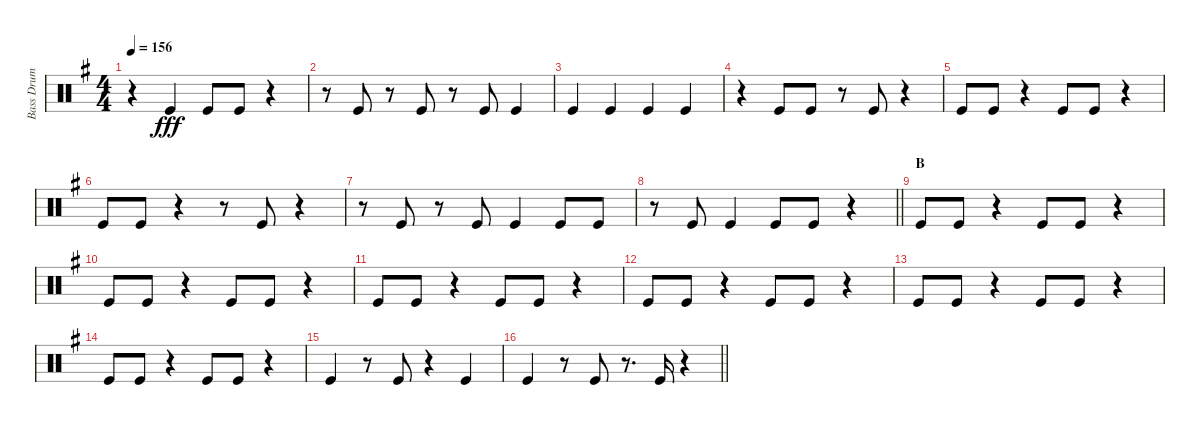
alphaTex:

\track ("Bass Drum" "Bass Drum") {instrument percussion}
\staff {score}
\articulation defaults
\ts (4 4)
\tempo 156
\clef neutral
\ks g
r.4{dy fff} "Kick (hit)".4 "Kick (hit)".8 "Kick (hit)".8 r.4 |
r.8 "Kick (hit)".8 r.8 "Kick (hit)".8 r.8 "Kick (hit)".8 "Kick (hit)".4 |
"Kick (hit)".4 "Kick (hit)".4 "Kick (hit)".4 "Kick (hit)".4 |
r.4 "Kick (hit)".8 "Kick (hit)".8 r.8 "Kick (hit)".8 r.4 |
"Kick (hit)".8 "Kick (hit)".8 r.4 "Kick (hit)".8 "Kick (hit)".8 r.4 |
"Kick (hit)".8 "Kick (hit)".8 r.4 r.8 "Kick (hit)".8 r.4 |
r.8 "Kick (hit)".8 r.8 "Kick (hit)".8 "Kick (hit)".4 "Kick (hit)".8 "Kick (hit)".8 |
\barLineRight lightlight
r.8 "Kick (hit)".8 "Kick (hit)".4 "Kick (hit)".8 "Kick (hit)".8 r.4 |
\section ("" "B")
"Kick (hit)".8 "Kick (hit)".8 r.4 "Kick (hit)".8 "Kick (hit)".8 r.4 |
"Kick (hit)".8 "Kick (hit)".8 r.4 "Kick (hit)".8 "Kick (hit)".8 r.4 |
"Kick (hit)".8 "Kick (hit)".8 r.4 "Kick (hit)".8 "Kick (hit)".8 r.4 |
"Kick (hit)".8 "Kick (hit)".8 r.4 "Kick (hit)".8 "Kick (hit)".8 r.4 |
"Kick (hit)".8 "Kick (hit)".8 r.4 "Kick (hit)".8 "Kick (hit)".8 r.4 |
"Kick (hit)".8 "Kick (hit)".8 r.4 "Kick (hit)".8 "Kick (hit)".8 r.4 |
"Kick (hit)".4 r.8 "Kick (hit)".8 r.4 "Kick (hit)".4 |
\barLineRight lightlight "Kick (hit)".4
r.8 "Kick (hit)".8 r.8{d} "Kick (hit)".16 r.4
